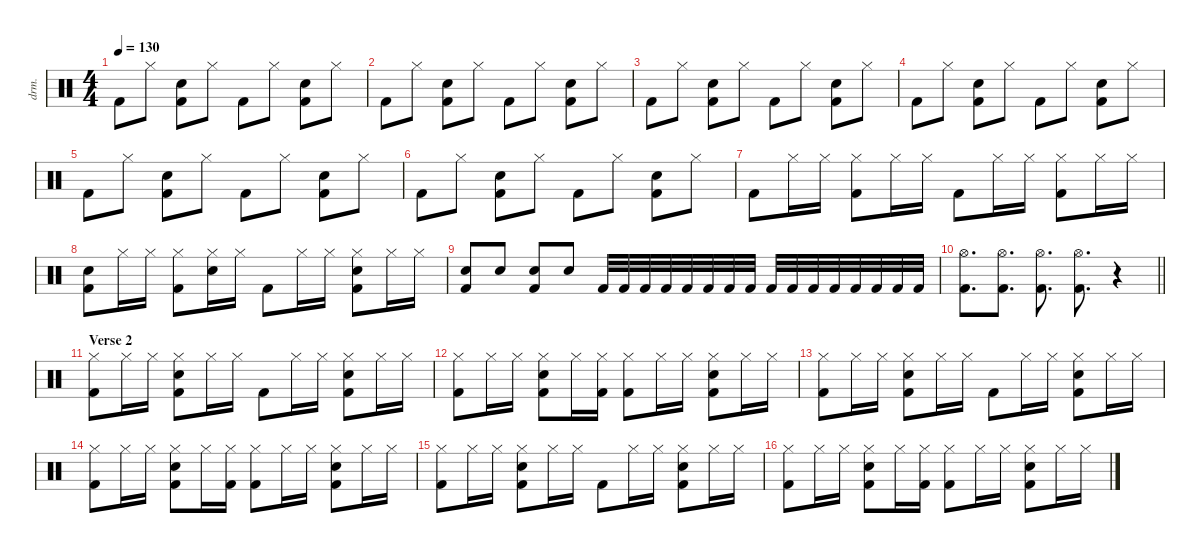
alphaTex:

\defaultSystemsLayout 4
\hideDynamics
\bracketExtendMode nobrackets
\otherSystemsTrackNameOrientation horizontal
\track ("Percussion" "drm.") {defaultSystemsLayout 4 instrument percussion}
\staff {score}
\articulation defaults
\ts (4 4)
\tempo 130
\clef neutral
\ks c "Kick (hit) 2".8{dy f beam Down} "Hi-Hat (closed)".8{beam Down}
("Snare (hit) 2" "Kick (hit) 2").8{beam Down} "Hi-Hat (closed)".8{beam Down} "Kick (hit) 2".8{beam Down} "Hi-Hat (closed)".8{beam Down} ("Snare (hit) 2" "Kick (hit) 2").8{beam Down} "Hi-Hat (closed)".8{beam Down} |
"Kick (hit) 2".8{beam Down} "Hi-Hat (closed)".8{beam Down} ("Snare (hit) 2" "Kick (hit) 2").8{beam Down} "Hi-Hat (closed)".8{beam Down} "Kick (hit) 2".8{beam Down} "Hi-Hat (closed)".8{beam Down} ("Snare (hit) 2" "Kick (hit) 2").8{beam Down} "Hi-Hat (closed)".8{beam Down} |
"Kick (hit) 2".8{beam Down} "Hi-Hat (closed)".8{beam Down} ("Snare (hit) 2" "Kick (hit) 2").8{beam Down} "Hi-Hat (closed)".8{beam Down} "Kick (hit) 2".8{beam Down} "Hi-Hat (closed)".8{beam Down} ("Snare (hit) 2" "Kick (hit) 2").8{beam Down} "Hi-Hat (closed)".8{beam Down} |
"Kick (hit) 2".8{beam Down} "Hi-Hat (closed)".8{beam Down} ("Snare (hit) 2" "Kick (hit) 2").8{beam Down} "Hi-Hat (closed)".8{beam Down} "Kick (hit) 2".8{beam Down} "Hi-Hat (closed)".8{beam Down} ("Snare (hit) 2" "Kick (hit) 2").8{beam Down} "Hi-Hat (closed)".8{beam Down} |
"Kick (hit) 2".8{beam Down} "Hi-Hat (closed)".8{beam Down} ("Snare (hit) 2" "Kick (hit) 2").8{beam Down} "Hi-Hat (closed)".8{beam Down} "Kick (hit) 2".8{beam Down} "Hi-Hat (closed)".8{beam Down} ("Snare (hit) 2" "Kick (hit) 2").8{beam Down} "Hi-Hat (closed)".8{beam Down} |
"Kick (hit) 2".8{beam Down} "Hi-Hat (closed)".8{beam Down} ("Snare (hit) 2" "Kick (hit) 2").8{beam Down} "Hi-Hat (closed)".8{beam Down} "Kick (hit) 2".8{beam Down} "Hi-Hat (closed)".8{beam Down} ("Snare (hit) 2" "Kick (hit) 2").8{beam Down} "Hi-Hat (closed)".8{beam Down} |
"Kick (hit) 2".8{beam Down} "Hi-Hat (closed)".16{beam Down} "Hi-Hat (closed)".16{beam Down} ("Hi-Hat (closed)" "Kick (hit) 2").8{beam Down} "Hi-Hat (closed)".16{beam Down} "Hi-Hat (closed)".16{beam Down} "Kick (hit) 2".8{beam Down} "Hi-Hat (closed)".16{beam Down} "Hi-Hat (closed)".16{beam Down} ("Hi-Hat (closed)" "Kick (hit) 2").8{beam Down} "Hi-Hat (closed)".16{beam Down} "Hi-Hat (closed)".16{beam Down} |
("Snare (hit) 2" "Kick (hit) 2").8{beam Down} "Hi-Hat (closed)".16{beam Down} "Hi-Hat (closed)".16{beam Down} ("Hi-Hat (closed)" "Kick (hit) 2").8{beam Down} ("Hi-Hat (closed)" "Snare (hit) 2").16{beam Down} "Hi-Hat (closed)".16{beam Down} "Kick (hit) 2".8{beam Down} "Hi-Hat (closed)".16{beam Down} "Hi-Hat (closed)".16{beam Down} ("Hi-Hat (closed)" "Snare (hit) 2" "Kick (hit) 2").8{beam Down} "Hi-Hat (closed)".16{beam Down} "Hi-Hat (closed)".16{beam Down} |
("Snare (hit) 2" "Kick (hit) 2").8{beam Up} "Snare (hit) 2".8{beam Up} ("Snare (hit) 2" "Kick (hit) 2").8{beam Up} "Snare (hit) 2".8{beam Up} "Kick (hit) 2".32{beam Up} "Kick (hit) 2".32{beam Up} "Kick (hit) 2".32{beam Up} "Kick (hit) 2".32{beam Up} "Kick (hit) 2".32{beam Up} "Kick (hit) 2".32{beam Up} "Kick (hit) 2".32{beam Up} "Kick (hit) 2".32{beam Up} "Kick (hit) 2".32{beam Up} "Kick (hit) 2".32{beam Up} "Kick (hit) 2".32{beam Up} "Kick (hit) 2".32{beam Up} "Kick (hit) 2".32{beam Up} "Kick (hit) 2".32{beam Up} "Kick (hit) 2".32{beam Up} "Kick (hit) 2".32{beam Up} |
\barLineRight lightlight
("Hi-Hat (open)" "Kick (hit) 2").8{d beam Down} ("Hi-Hat (open)" "Kick (hit) 2").8{d beam Down} ("Hi-Hat (open)" "Kick (hit) 2").8{d beam Down} ("Hi-Hat (open)" "Kick (hit) 2").8{d beam Down} r.4{beam Down} |
\section ("" "Verse 2")
("Hi-Hat (closed)" "Kick (hit) 2").8{beam Down} "Hi-Hat (closed)".16{beam Down} "Hi-Hat (closed)".16{beam Down} ("Hi-Hat (closed)" "Snare (hit) 2" "Kick (hit) 2").8{beam Down} "Hi-Hat (closed)".16{beam Down} "Hi-Hat (closed)".16{beam Down} "Kick (hit) 2".8{beam Down} "Hi-Hat (closed)".16{beam Down} "Hi-Hat (closed)".16{beam Down} ("Hi-Hat (closed)" "Snare (hit) 2" "Kick (hit) 2").8{beam Down} "Hi-Hat (closed)".16{beam Down} "Hi-Hat (closed)".16{beam Down} |
("Hi-Hat (closed)" "Kick (hit) 2").8{beam Down} "Hi-Hat (closed)".16{beam Down} "Hi-Hat (closed)".16{beam Down} ("Hi-Hat (closed)" "Snare (hit) 2" "Kick (hit) 2").8{beam Down} "Hi-Hat (closed)".16{beam Down} ("Hi-Hat (closed)" "Kick (hit) 2").16{beam Down} ("Hi-Hat (closed)" "Kick (hit) 2").8{beam Down} "Hi-Hat (closed)".16{beam Down} "Hi-Hat (closed)".16{beam Down} ("Hi-Hat (closed)" "Snare (hit) 2" "Kick (hit) 2").8{beam Down} "Hi-Hat (closed)".16{beam Down} "Hi-Hat (closed)".16{beam Down} |
("Hi-Hat (closed)" "Kick (hit) 2").8{beam Down} "Hi-Hat (closed)".16{beam Down} "Hi-Hat (closed)".16{beam Down} ("Hi-Hat (closed)" "Snare (hit) 2" "Kick (hit) 2").8{beam Down} "Hi-Hat (closed)".16{beam Down} "Hi-Hat (closed)".16{beam Down} "Kick (hit) 2".8{beam Down} "Hi-Hat (closed)".16{beam Down} "Hi-Hat (closed)".16{beam Down} ("Hi-Hat (closed)" "Snare (hit) 2" "Kick (hit) 2").8{beam Down} "Hi-Hat (closed)".16{beam Down} "Hi-Hat (closed)".16{beam Down} |
("Hi-Hat (closed)" "Kick (hit) 2").8{beam Down} "Hi-Hat (closed)".16{beam Down} "Hi-Hat (closed)".16{beam Down} ("Hi-Hat (closed)" "Snare (hit) 2" "Kick (hit) 2").8{beam Down} "Hi-Hat (closed)".16{beam Down} ("Hi-Hat (closed)" "Kick (hit) 2").16{beam Down} ("Hi-Hat (closed)" "Kick (hit) 2").8{beam Down} "Hi-Hat (closed)".16{beam Down} "Hi-Hat (closed)".16{beam Down} ("Hi-Hat (closed)" "Snare (hit) 2" "Kick (hit) 2").8{beam Down} "Hi-Hat (closed)".16{beam Down} "Hi-Hat (closed)".16{beam Down} |
("Hi-Hat (closed)" "Kick (hit) 2").8{beam Down} "Hi-Hat (closed)".16{beam Down} "Hi-Hat (closed)".16{beam Down} ("Hi-Hat (closed)" "Snare (hit) 2" "Kick (hit) 2").8{beam Down} "Hi-Hat (closed)".16{beam Down} "Hi-Hat (closed)".16{beam Down} "Kick (hit) 2".8{beam Down} "Hi-Hat (closed)".16{beam Down} "Hi-Hat (closed)".16{beam Down} ("Hi-Hat (closed)" "Snare (hit) 2" "Kick (hit) 2").8{beam Down} "Hi-Hat (closed)".16{beam Down} "Hi-Hat (closed)".16{beam Down} |
("Hi-Hat (closed)" "Kick (hit) 2").8{beam Down} "Hi-Hat (closed)".16{beam Down} "Hi-Hat (closed)".16{beam Down} ("Hi-Hat (closed)" "Snare (hit) 2" "Kick (hit) 2").8{beam Down} "Hi-Hat (closed)".16{beam Down} ("Hi-Hat (closed)" "Kick (hit) 2").16{beam Down} ("Hi-Hat (closed)" "Kick (hit) 2").8{beam Down} "Hi-Hat (closed)".16{beam Down} "Hi-Hat (closed)".16{beam Down} ("Hi-Hat (closed)" "Snare (hit) 2" "Kick (hit) 2").8{beam Down} "Hi-Hat (closed)".16{beam Down} "Hi-Hat (closed)".16{beam Down}
